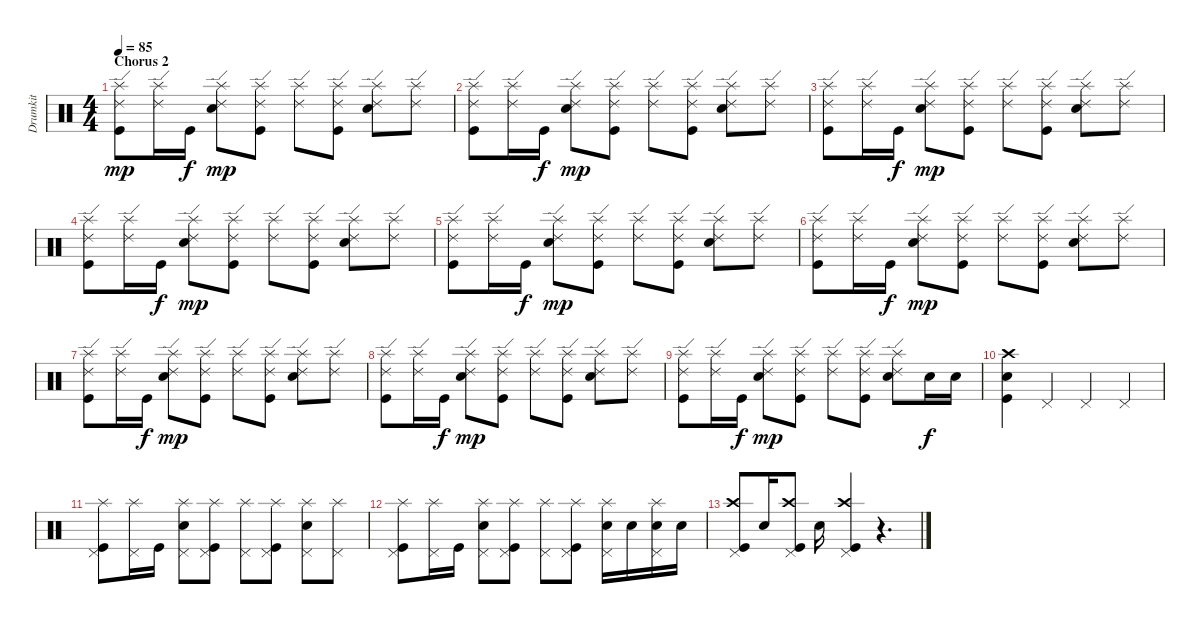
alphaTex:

\track ("Drumkit" "Drumkit") {instrument percussion}
\staff {score}
\articulation defaults
\ts (4 4)
\section ("" "Chorus 2")
\tempo 85
\clef neutral
\ks c
("Splash (hit)" "Ride (edge) 2" "Kick (hit)").8{dy mp} ("Splash (hit)" "Ride (edge) 2").16 "Kick (hit)".16{dy f} ("Splash (hit)" "Ride (edge) 2" "Snare (hit) 2").8{dy mp} ("Splash (hit)" "Ride (edge) 2" "Kick (hit)").8 ("Splash (hit)" "Ride (edge) 2").8 ("Splash (hit)" "Ride (edge) 2" "Kick (hit)").8 ("Splash (hit)" "Ride (edge) 2" "Snare (hit) 2").8 ("Splash (hit)" "Ride (edge) 2").8 |
("Splash (hit)" "Ride (edge) 2" "Kick (hit)").8 ("Splash (hit)" "Ride (edge) 2").16 "Kick (hit)".16{dy f} ("Splash (hit)" "Ride (edge) 2" "Snare (hit) 2").8{dy mp} ("Splash (hit)" "Ride (edge) 2" "Kick (hit)").8 ("Splash (hit)" "Ride (edge) 2").8 ("Splash (hit)" "Ride (edge) 2" "Kick (hit)").8 ("Splash (hit)" "Ride (edge) 2" "Snare (hit) 2").8 ("Splash (hit)" "Ride (edge) 2").8 |
("Splash (hit)" "Ride (edge) 2" "Kick (hit)").8 ("Splash (hit)" "Ride (edge) 2").16 "Kick (hit)".16{dy f} ("Splash (hit)" "Ride (edge) 2" "Snare (hit) 2").8{dy mp} ("Splash (hit)" "Ride (edge) 2" "Kick (hit)").8 ("Splash (hit)" "Ride (edge) 2").8 ("Splash (hit)" "Ride (edge) 2" "Kick (hit)").8 ("Splash (hit)" "Ride (edge) 2" "Snare (hit) 2").8 ("Splash (hit)" "Ride (edge) 2").8 |
("Splash (hit)" "Ride (edge) 2" "Kick (hit)").8 ("Splash (hit)" "Ride (edge) 2").16 "Kick (hit)".16{dy f} ("Splash (hit)" "Ride (edge) 2" "Snare (hit) 2").8{dy mp} ("Splash (hit)" "Ride (edge) 2" "Kick (hit)").8 ("Splash (hit)" "Ride (edge) 2").8 ("Splash (hit)" "Ride (edge) 2" "Kick (hit)").8 ("Splash (hit)" "Ride (edge) 2" "Snare (hit) 2").8 ("Splash (hit)" "Ride (edge) 2").8 |
("Splash (hit)" "Ride (edge) 2" "Kick (hit)").8 ("Splash (hit)" "Ride (edge) 2").16 "Kick (hit)".16{dy f} ("Splash (hit)" "Ride (edge) 2" "Snare (hit) 2").8{dy mp} ("Splash (hit)" "Ride (edge) 2" "Kick (hit)").8 ("Splash (hit)" "Ride (edge) 2").8 ("Splash (hit)" "Ride (edge) 2" "Kick (hit)").8 ("Splash (hit)" "Ride (edge) 2" "Snare (hit) 2").8 ("Splash (hit)" "Ride (edge) 2").8 |
("Splash (hit)" "Ride (edge) 2" "Kick (hit)").8 ("Splash (hit)" "Ride (edge) 2").16 "Kick (hit)".16{dy f} ("Splash (hit)" "Ride (edge) 2" "Snare (hit) 2").8{dy mp} ("Splash (hit)" "Ride (edge) 2" "Kick (hit)").8 ("Splash (hit)" "Ride (edge) 2").8 ("Splash (hit)" "Ride (edge) 2" "Kick (hit)").8 ("Splash (hit)" "Ride (edge) 2" "Snare (hit) 2").8 ("Splash (hit)" "Ride (edge) 2").8 |
("Splash (hit)" "Ride (edge) 2" "Kick (hit)").8 ("Splash (hit)" "Ride (edge) 2").16 "Kick (hit)".16{dy f} ("Splash (hit)" "Ride (edge) 2" "Snare (hit) 2").8{dy mp} ("Splash (hit)" "Ride (edge) 2" "Kick (hit)").8 ("Splash (hit)" "Ride (edge) 2").8 ("Splash (hit)" "Ride (edge) 2" "Kick (hit)").8 ("Splash (hit)" "Ride (edge) 2" "Snare (hit) 2").8 ("Splash (hit)" "Ride (edge) 2").8 |
("Splash (hit)" "Ride (edge) 2" "Kick (hit)").8 ("Splash (hit)" "Ride (edge) 2").16 "Kick (hit)".16{dy f} ("Splash (hit)" "Ride (edge) 2" "Snare (hit) 2").8{dy mp} ("Splash (hit)" "Ride (edge) 2" "Kick (hit)").8 ("Splash (hit)" "Ride (edge) 2").8 ("Splash (hit)" "Ride (edge) 2" "Kick (hit)").8 ("Splash (hit)" "Ride (edge) 2" "Snare (hit) 2").8 ("Splash (hit)" "Ride (edge) 2").8 |
("Splash (hit)" "Ride (edge) 2" "Kick (hit)").8 ("Splash (hit)" "Ride (edge) 2").16 "Kick (hit)".16{dy f} ("Splash (hit)" "Ride (edge) 2" "Snare (hit) 2").8{dy mp} ("Splash (hit)" "Ride (edge) 2" "Kick (hit)").8 ("Splash (hit)" "Ride (edge) 2").8 ("Splash (hit)" "Ride (edge) 2" "Kick (hit)").8 ("Splash (hit)" "Ride (edge) 2" "Snare (hit) 2").8 "Snare (hit) 2".16{dy f} "Snare (hit) 2".16 |
("Crash high (hit)" "Snare (hit) 2" "Kick (hit)").4 "Pedal Hi-Hat (hit)".4 "Pedal Hi-Hat (hit)".4 "Pedal Hi-Hat (hit)".4 |
("Pedal Hi-Hat (hit)" "Splash (hit)" "Kick (hit)").8 ("Pedal Hi-Hat (hit)" "Splash (hit)").16 "Kick (hit)".16 ("Pedal Hi-Hat (hit)" "Splash (hit)" "Snare (hit) 2").8 ("Pedal Hi-Hat (hit)" "Splash (hit)" "Kick (hit)").8 ("Pedal Hi-Hat (hit)" "Splash (hit)").8 ("Pedal Hi-Hat (hit)" "Splash (hit)" "Kick (hit)").8 ("Pedal Hi-Hat (hit)" "Splash (hit)" "Snare (hit) 2").8 ("Pedal Hi-Hat (hit)" "Splash (hit)").8 |
("Pedal Hi-Hat (hit)" "Splash (hit)" "Kick (hit)").8 ("Pedal Hi-Hat (hit)" "Splash (hit)").16 "Kick (hit)".16 ("Pedal Hi-Hat (hit)" "Splash (hit)" "Snare (hit) 2").8 ("Pedal Hi-Hat (hit)" "Splash (hit)" "Kick (hit)").8 ("Pedal Hi-Hat (hit)" "Splash (hit)").8 ("Pedal Hi-Hat (hit)" "Splash (hit)" "Kick (hit)").8 ("Pedal Hi-Hat (hit)" "Splash (hit)" "Snare (hit) 2").16 "Snare (hit) 2".16 ("Pedal Hi-Hat (hit)" "Splash (hit)" "Snare (hit) 2").16 "Snare (hit) 2".16 |
("Pedal Hi-Hat (hit)" "Crash high (hit)" "Kick (hit)").8 "Snare (hit) 2".16 ("Pedal Hi-Hat (hit)" "Crash high (hit)" "Kick (hit)").8 "Snare (hit) 2".16 ("Pedal Hi-Hat (hit)" "Crash high (hit)" "Kick (hit)").4 r.4{d}
